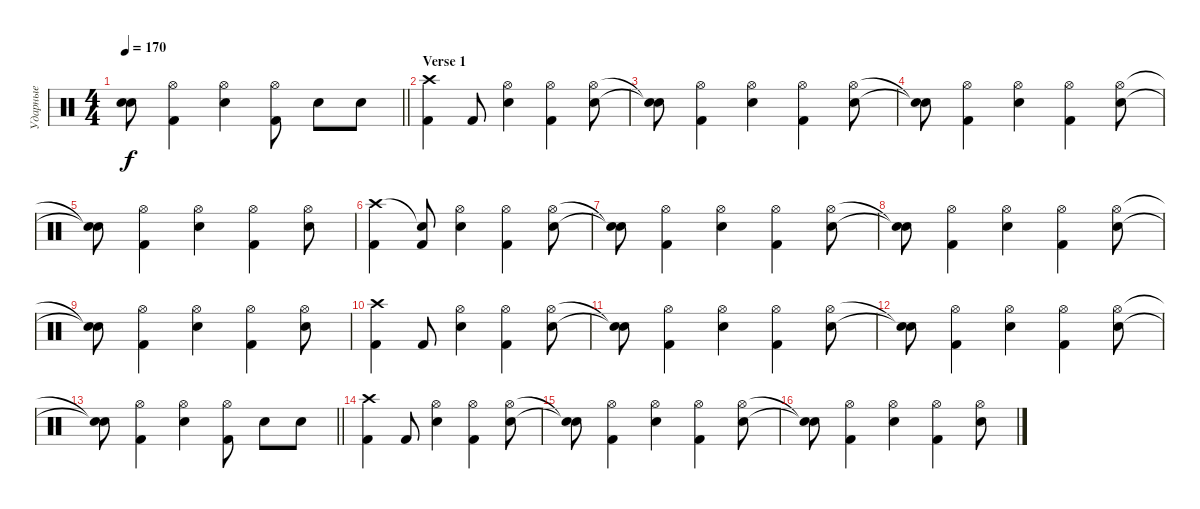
\track ("Ударные" "Ударные") {instrument percussion}
\staff {score}
\articulation defaults
\ts (4 4)
\tempo 170
\clef neutral
\barLineRight lightlight
\ks c
("Snare (hit)"{t} "Snare (hit)"{t}).8{dy f} ("Hi-Hat (open)" "Kick (hit) 2").4 ("Hi-Hat (open)" "Snare (hit) 2").4 ("Kick (hit) 2" "Hi-Hat (open)").8 "Snare (hit) 2".8 "Snare (hit) 2".8 |
\section ("" "Verse 1")
("Crash high (hit)" "Kick (hit) 2").4 "Kick (hit) 2".8 ("Hi-Hat (open)" "Snare (hit) 2").4 ("Hi-Hat (open)" "Kick (hit) 2").4 ("Hi-Hat (open)" "Snare (hit) 2").8 |
("Snare (hit)"{t} "Snare (hit)"{t}).8 ("Hi-Hat (open)" "Kick (hit) 2").4 ("Hi-Hat (open)" "Snare (hit) 2").4 ("Hi-Hat (open)" "Kick (hit) 2").4 ("Hi-Hat (open)" "Snare (hit) 2").8 |
("Snare (hit)"{t} "Snare (hit)"{t}).8 ("Hi-Hat (open)" "Kick (hit) 2").4 ("Hi-Hat (open)" "Snare (hit) 2").4 ("Hi-Hat (open)" "Kick (hit) 2").4 ("Hi-Hat (open)" "Snare (hit) 2").8 |
("Snare (hit)"{t} "Snare (hit)"{t}).8 ("Hi-Hat (open)" "Kick (hit) 2").4 ("Hi-Hat (open)" "Snare (hit) 2").4 ("Hi-Hat (open)" "Kick (hit) 2").4 ("Hi-Hat (open)" "Snare (hit) 2").8 |
("Crash high (hit)" "Kick (hit) 2").4 ("Snare (hit)"{t} "Kick (hit) 2").8 ("Hi-Hat (open)" "Snare (hit) 2").4 ("Hi-Hat (open)" "Kick (hit) 2").4 ("Hi-Hat (open)" "Snare (hit) 2").8 |
("Snare (hit)"{t} "Snare (hit)"{t}).8 ("Hi-Hat (open)" "Kick (hit) 2").4 ("Hi-Hat (open)" "Snare (hit) 2").4 ("Hi-Hat (open)" "Kick (hit) 2").4 ("Hi-Hat (open)" "Snare (hit) 2").8 |
("Snare (hit)"{t} "Snare (hit)"{t}).8 ("Hi-Hat (open)" "Kick (hit) 2").4 ("Hi-Hat (open)" "Snare (hit) 2").4 ("Hi-Hat (open)" "Kick (hit) 2").4 ("Hi-Hat (open)" "Snare (hit) 2").8 |
("Snare (hit)"{t} "Snare (hit)"{t}).8 ("Hi-Hat (open)" "Kick (hit) 2").4 ("Hi-Hat (open)" "Snare (hit) 2").4 ("Hi-Hat (open)" "Kick (hit) 2").4 ("Hi-Hat (open)" "Snare (hit) 2").8 |
("Crash high (hit)" "Kick (hit) 2").4 "Kick (hit) 2".8 ("Hi-Hat (open)" "Snare (hit) 2").4 ("Hi-Hat (open)" "Kick (hit) 2").4 ("Hi-Hat (open)" "Snare (hit) 2").8 |
("Snare (hit)"{t} "Snare (hit)"{t}).8 ("Hi-Hat (open)" "Kick (hit) 2").4 ("Hi-Hat (open)" "Snare (hit) 2").4 ("Hi-Hat (open)" "Kick (hit) 2").4 ("Hi-Hat (open)" "Snare (hit) 2").8 |
("Snare (hit)"{t} "Snare (hit)"{t}).8 ("Hi-Hat (open)" "Kick (hit) 2").4 ("Hi-Hat (open)" "Snare (hit) 2").4 ("Hi-Hat (open)" "Kick (hit) 2").4 ("Hi-Hat (open)" "Snare (hit) 2").8 |
\barLineRight lightlight
("Snare (hit)"{t} "Snare (hit)"{t}).8 ("Hi-Hat (open)" "Kick (hit) 2").4 ("Hi-Hat (open)" "Snare (hit) 2").4 ("Kick (hit) 2" "Hi-Hat (open)").8 "Snare (hit) 2".8 "Snare (hit) 2".8 |
("Crash high (hit)" "Kick (hit) 2").4 "Kick (hit) 2".8 ("Hi-Hat (open)" "Snare (hit) 2").4 ("Hi-Hat (open)" "Kick (hit) 2").4 ("Hi-Hat (open)" "Snare (hit) 2").8 |
("Snare (hit)"{t} "Snare (hit)"{t}).8 ("Hi-Hat (open)" "Kick (hit) 2").4 ("Hi-Hat (open)" "Snare (hit) 2").4 ("Hi-Hat (open)" "Kick (hit) 2").4 ("Hi-Hat (open)" "Snare (hit) 2").8 |
("Snare (hit)"{t} "Snare (hit)"{t}).8 ("Hi-Hat (open)" "Kick (hit) 2").4 ("Hi-Hat (open)" "Snare (hit) 2").4 ("Hi-Hat (open)" "Kick (hit) 2").4 ("Hi-Hat (open)" "Snare (hit) 2").8
